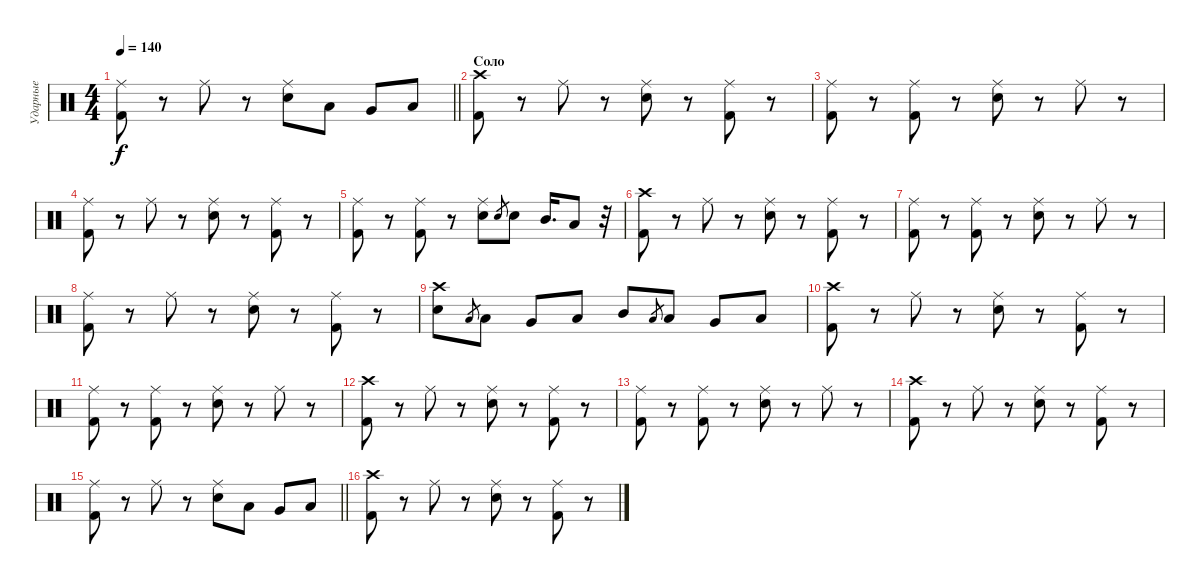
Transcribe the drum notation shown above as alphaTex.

\track ("Ударные" "Ударные") {instrument percussion}
\staff {score}
\articulation defaults
\ts (4 4)
\tempo 140
\clef neutral
\barLineRight lightlight
\ks c
("Kick (hit) 2" "Ride (middle)").8{dy f} r.8 "Ride (middle)".8 r.8 ("Electric Snare (hit)" "Ride (middle)").8 "Low Tom (hit)".8 "Very Low Tom (hit)".8 "Low Floor Tom (hit)".8 |
\section ("" "Соло")
("Kick (hit) 2" "Crash high (hit)").8 r.8 "Ride (middle)".8 r.8 ("Electric Snare (hit)" "Ride (middle)").8 r.8 ("Kick (hit) 2" "Ride (middle)").8 r.8 |
("Kick (hit) 2" "Ride (middle)").8 r.8 ("Ride (middle)" "Kick (hit) 2").8 r.8 ("Electric Snare (hit)" "Ride (middle)").8 r.8 "Ride (middle)".8 r.8 |
("Kick (hit) 2" "Ride (middle)").8 r.8 "Ride (middle)".8 r.8 ("Electric Snare (hit)" "Ride (middle)").8 r.8 ("Ride (middle)" "Kick (hit) 2").8 r.8 |
("Kick (hit) 2" "Ride (middle)").8 r.8 ("Ride (middle)" "Kick (hit) 2").8 r.8 ("Electric Snare (hit)" "Ride (middle)").8 "Electric Snare (hit)".8{gr} "Electric Snare (hit)".8 "Mid Tom (hit)".16{d} "Low Tom (hit)".8 r.32 |
("Kick (hit) 2" "Crash high (hit)").8 r.8 "Ride (middle)".8 r.8 ("Electric Snare (hit)" "Ride (middle)").8 r.8 ("Kick (hit) 2" "Ride (middle)").8 r.8 |
("Kick (hit) 2" "Ride (middle)").8 r.8 ("Ride (middle)" "Kick (hit) 2").8 r.8 ("Electric Snare (hit)" "Ride (middle)").8 r.8 "Ride (middle)".8 r.8 |
("Kick (hit) 2" "Ride (middle)").8 r.8 "Ride (middle)".8 r.8 ("Electric Snare (hit)" "Ride (middle)").8 r.8 ("Ride (middle)" "Kick (hit) 2").8 r.8 |
("Electric Snare (hit)" "Crash high (hit)").8 "Low Tom (hit)".8{gr} "Low Tom (hit)".8 "Very Low Tom (hit)".8 "Low Floor Tom (hit)".8 "Mid Tom (hit)".8 "Low Tom (hit)".8{gr} "Low Tom (hit)".8 "Very Low Tom (hit)".8 "Low Floor Tom (hit)".8 |
("Kick (hit) 2" "Crash high (hit)").8 r.8 "Ride (middle)".8 r.8 ("Electric Snare (hit)" "Ride (middle)").8 r.8 ("Kick (hit) 2" "Ride (middle)").8 r.8 |
("Kick (hit) 2" "Ride (middle)").8 r.8 ("Ride (middle)" "Kick (hit) 2").8 r.8 ("Electric Snare (hit)" "Ride (middle)").8 r.8 "Ride (middle)".8 r.8 |
("Kick (hit) 2" "Crash high (hit)").8 r.8 "Ride (middle)".8 r.8 ("Electric Snare (hit)" "Ride (middle)").8 r.8 ("Kick (hit) 2" "Ride (middle)").8 r.8 |
("Kick (hit) 2" "Ride (middle)").8 r.8 ("Ride (middle)" "Kick (hit) 2").8 r.8 ("Electric Snare (hit)" "Ride (middle)").8 r.8 "Ride (middle)".8 r.8 |
("Kick (hit) 2" "Crash high (hit)").8 r.8 "Ride (middle)".8 r.8 ("Electric Snare (hit)" "Ride (middle)").8 r.8 ("Kick (hit) 2" "Ride (middle)").8 r.8 |
\barLineRight lightlight
("Kick (hit) 2" "Ride (middle)").8 r.8 "Ride (middle)".8 r.8 ("Electric Snare (hit)" "Ride (middle)").8 "Low Tom (hit)".8 "Very Low Tom (hit)".8 "Low Floor Tom (hit)".8 |
("Kick (hit) 2" "Crash high (hit)").8 r.8 "Ride (middle)".8 r.8 ("Electric Snare (hit)" "Ride (middle)").8 r.8 ("Kick (hit) 2" "Ride (middle)").8 r.8
